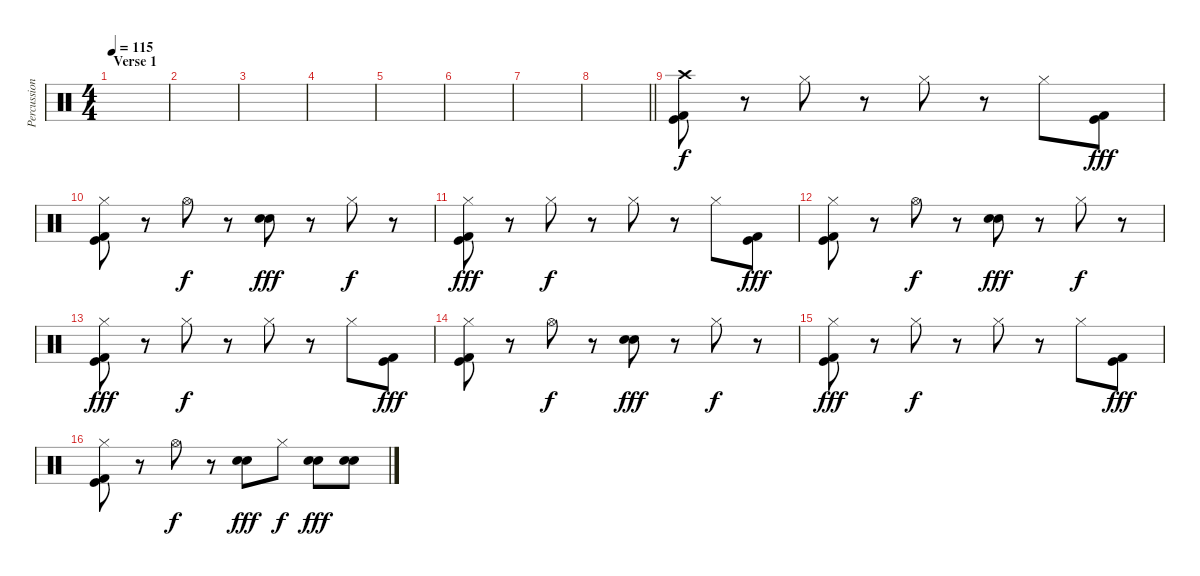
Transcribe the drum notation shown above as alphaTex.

\track ("Percussion" "Percussion") {instrument percussion}
\staff {score}
\articulation defaults
\ts (4 4)
\section ("" "Verse 1")
\tempo 115
\clef neutral
\ks c
|
|
|
|
|
|
|
\barLineRight lightlight
|
("Crash high (hit)" "Kick (hit) 2" "Kick (hit)").8 r.8 "Hi-Hat (closed)".8{dy f} r.8 "Hi-Hat (closed)".8 r.8 "Hi-Hat (closed)".8 ("Kick (hit) 2" "Kick (hit)").8{dy fff} |
("Hi-Hat (closed)" "Kick (hit) 2" "Kick (hit)").8 r.8 "Hi-Hat (open)".8{dy f} r.8 ("Electric Snare (hit)" "Snare (hit) 2").8{dy fff} r.8 "Hi-Hat (closed)".8{dy f} r.8 |
("Hi-Hat (closed)" "Kick (hit) 2" "Kick (hit)").8{dy fff} r.8 "Hi-Hat (closed)".8{dy f} r.8 "Hi-Hat (closed)".8 r.8 "Hi-Hat (closed)".8 ("Kick (hit) 2" "Kick (hit)").8{dy fff} |
("Hi-Hat (closed)" "Kick (hit) 2" "Kick (hit)").8 r.8 "Hi-Hat (open)".8{dy f} r.8 ("Electric Snare (hit)" "Snare (hit) 2").8{dy fff} r.8 "Hi-Hat (closed)".8{dy f} r.8 |
("Hi-Hat (closed)" "Kick (hit) 2" "Kick (hit)").8{dy fff} r.8 "Hi-Hat (closed)".8{dy f} r.8 "Hi-Hat (closed)".8 r.8 "Hi-Hat (closed)".8 ("Kick (hit) 2" "Kick (hit)").8{dy fff} |
("Hi-Hat (closed)" "Kick (hit) 2" "Kick (hit)").8 r.8 "Hi-Hat (open)".8{dy f} r.8 ("Electric Snare (hit)" "Snare (hit) 2").8{dy fff} r.8 "Hi-Hat (closed)".8{dy f} r.8 |
("Hi-Hat (closed)" "Kick (hit) 2" "Kick (hit)").8{dy fff} r.8 "Hi-Hat (closed)".8{dy f} r.8 "Hi-Hat (closed)".8 r.8 "Hi-Hat (closed)".8 ("Kick (hit) 2" "Kick (hit)").8{dy fff} |
("Hi-Hat (closed)" "Kick (hit) 2" "Kick (hit)").8 r.8 "Hi-Hat (open)".8{dy f} r.8 ("Electric Snare (hit)" "Snare (hit) 2").8{dy fff} "Hi-Hat (closed)".8{dy f} ("Electric Snare (hit)" "Snare (hit) 2").8{dy fff} ("Electric Snare (hit)" "Snare (hit) 2").8
